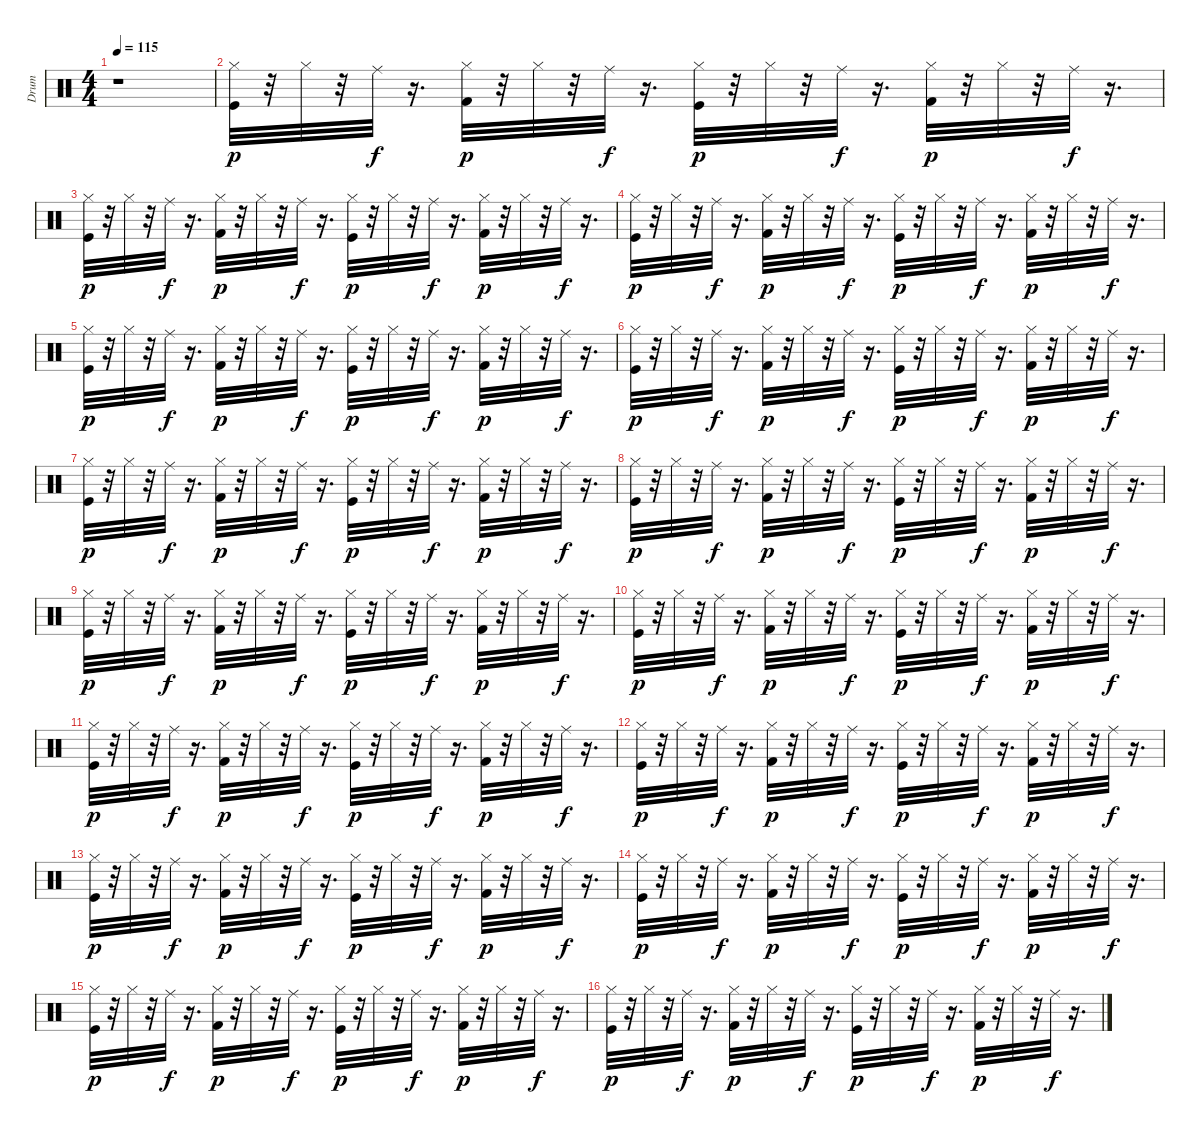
\track ("Drum" "Drum") {instrument percussion}
\staff {score}
\articulation defaults
\ts (4 4)
\tempo 115
\clef neutral
\ks c
r.1{dy p} |
("Hi-Hat (closed)" "Kick (hit)").32 r.32 "Hi-Hat (closed)".32 r.32 "Ride (middle)".32{dy f} r.16{d} ("Hi-Hat (closed)" "Kick (hit) 2").32{dy p} r.32 "Hi-Hat (closed)".32 r.32 "Ride (middle)".32{dy f} r.16{d} ("Hi-Hat (closed)" "Kick (hit)").32{dy p} r.32 "Hi-Hat (closed)".32 r.32 "Ride (middle)".32{dy f} r.16{d} ("Hi-Hat (closed)" "Kick (hit) 2").32{dy p} r.32 "Hi-Hat (closed)".32 r.32 "Ride (middle)".32{dy f} r.16{d} |
("Hi-Hat (closed)" "Kick (hit)").32{dy p} r.32 "Hi-Hat (closed)".32 r.32 "Ride (middle)".32{dy f} r.16{d} ("Hi-Hat (closed)" "Kick (hit) 2").32{dy p} r.32 "Hi-Hat (closed)".32 r.32 "Ride (middle)".32{dy f} r.16{d} ("Hi-Hat (closed)" "Kick (hit)").32{dy p} r.32 "Hi-Hat (closed)".32 r.32 "Ride (middle)".32{dy f} r.16{d} ("Hi-Hat (closed)" "Kick (hit) 2").32{dy p} r.32 "Hi-Hat (closed)".32 r.32 "Ride (middle)".32{dy f} r.16{d} |
("Hi-Hat (closed)" "Kick (hit)").32{dy p} r.32 "Hi-Hat (closed)".32 r.32 "Ride (middle)".32{dy f} r.16{d} ("Hi-Hat (closed)" "Kick (hit) 2").32{dy p} r.32 "Hi-Hat (closed)".32 r.32 "Ride (middle)".32{dy f} r.16{d} ("Hi-Hat (closed)" "Kick (hit)").32{dy p} r.32 "Hi-Hat (closed)".32 r.32 "Ride (middle)".32{dy f} r.16{d} ("Hi-Hat (closed)" "Kick (hit) 2").32{dy p} r.32 "Hi-Hat (closed)".32 r.32 "Ride (middle)".32{dy f} r.16{d} |
("Hi-Hat (closed)" "Kick (hit)").32{dy p} r.32 "Hi-Hat (closed)".32 r.32 "Ride (middle)".32{dy f} r.16{d} ("Hi-Hat (closed)" "Kick (hit) 2").32{dy p} r.32 "Hi-Hat (closed)".32 r.32 "Ride (middle)".32{dy f} r.16{d} ("Hi-Hat (closed)" "Kick (hit)").32{dy p} r.32 "Hi-Hat (closed)".32 r.32 "Ride (middle)".32{dy f} r.16{d} ("Hi-Hat (closed)" "Kick (hit) 2").32{dy p} r.32 "Hi-Hat (closed)".32 r.32 "Ride (middle)".32{dy f} r.16{d} |
("Hi-Hat (closed)" "Kick (hit)").32{dy p} r.32 "Hi-Hat (closed)".32 r.32 "Ride (middle)".32{dy f} r.16{d} ("Hi-Hat (closed)" "Kick (hit) 2").32{dy p} r.32 "Hi-Hat (closed)".32 r.32 "Ride (middle)".32{dy f} r.16{d} ("Hi-Hat (closed)" "Kick (hit)").32{dy p} r.32 "Hi-Hat (closed)".32 r.32 "Ride (middle)".32{dy f} r.16{d} ("Hi-Hat (closed)" "Kick (hit) 2").32{dy p} r.32 "Hi-Hat (closed)".32 r.32 "Ride (middle)".32{dy f} r.16{d} |
("Hi-Hat (closed)" "Kick (hit)").32{dy p} r.32 "Hi-Hat (closed)".32 r.32 "Ride (middle)".32{dy f} r.16{d} ("Hi-Hat (closed)" "Kick (hit) 2").32{dy p} r.32 "Hi-Hat (closed)".32 r.32 "Ride (middle)".32{dy f} r.16{d} ("Hi-Hat (closed)" "Kick (hit)").32{dy p} r.32 "Hi-Hat (closed)".32 r.32 "Ride (middle)".32{dy f} r.16{d} ("Hi-Hat (closed)" "Kick (hit) 2").32{dy p} r.32 "Hi-Hat (closed)".32 r.32 "Ride (middle)".32{dy f} r.16{d} |
("Hi-Hat (closed)" "Kick (hit)").32{dy p} r.32 "Hi-Hat (closed)".32 r.32 "Ride (middle)".32{dy f} r.16{d} ("Hi-Hat (closed)" "Kick (hit) 2").32{dy p} r.32 "Hi-Hat (closed)".32 r.32 "Ride (middle)".32{dy f} r.16{d} ("Hi-Hat (closed)" "Kick (hit)").32{dy p} r.32 "Hi-Hat (closed)".32 r.32 "Ride (middle)".32{dy f} r.16{d} ("Hi-Hat (closed)" "Kick (hit) 2").32{dy p} r.32 "Hi-Hat (closed)".32 r.32 "Ride (middle)".32{dy f} r.16{d} |
("Hi-Hat (closed)" "Kick (hit)").32{dy p} r.32 "Hi-Hat (closed)".32 r.32 "Ride (middle)".32{dy f} r.16{d} ("Hi-Hat (closed)" "Kick (hit) 2").32{dy p} r.32 "Hi-Hat (closed)".32 r.32 "Ride (middle)".32{dy f} r.16{d} ("Hi-Hat (closed)" "Kick (hit)").32{dy p} r.32 "Hi-Hat (closed)".32 r.32 "Ride (middle)".32{dy f} r.16{d} ("Hi-Hat (closed)" "Kick (hit) 2").32{dy p} r.32 "Hi-Hat (closed)".32 r.32 "Ride (middle)".32{dy f} r.16{d} |
("Hi-Hat (closed)" "Kick (hit)").32{dy p} r.32 "Hi-Hat (closed)".32 r.32 "Ride (middle)".32{dy f} r.16{d} ("Hi-Hat (closed)" "Kick (hit) 2").32{dy p} r.32 "Hi-Hat (closed)".32 r.32 "Ride (middle)".32{dy f} r.16{d} ("Hi-Hat (closed)" "Kick (hit)").32{dy p} r.32 "Hi-Hat (closed)".32 r.32 "Ride (middle)".32{dy f} r.16{d} ("Hi-Hat (closed)" "Kick (hit) 2").32{dy p} r.32 "Hi-Hat (closed)".32 r.32 "Ride (middle)".32{dy f} r.16{d} |
("Hi-Hat (closed)" "Kick (hit)").32{dy p} r.32 "Hi-Hat (closed)".32 r.32 "Ride (middle)".32{dy f} r.16{d} ("Hi-Hat (closed)" "Kick (hit) 2").32{dy p} r.32 "Hi-Hat (closed)".32 r.32 "Ride (middle)".32{dy f} r.16{d} ("Hi-Hat (closed)" "Kick (hit)").32{dy p} r.32 "Hi-Hat (closed)".32 r.32 "Ride (middle)".32{dy f} r.16{d} ("Hi-Hat (closed)" "Kick (hit) 2").32{dy p} r.32 "Hi-Hat (closed)".32 r.32 "Ride (middle)".32{dy f} r.16{d} |
("Hi-Hat (closed)" "Kick (hit)").32{dy p} r.32 "Hi-Hat (closed)".32 r.32 "Ride (middle)".32{dy f} r.16{d} ("Hi-Hat (closed)" "Kick (hit) 2").32{dy p} r.32 "Hi-Hat (closed)".32 r.32 "Ride (middle)".32{dy f} r.16{d} ("Hi-Hat (closed)" "Kick (hit)").32{dy p} r.32 "Hi-Hat (closed)".32 r.32 "Ride (middle)".32{dy f} r.16{d} ("Hi-Hat (closed)" "Kick (hit) 2").32{dy p} r.32 "Hi-Hat (closed)".32 r.32 "Ride (middle)".32{dy f} r.16{d} |
("Hi-Hat (closed)" "Kick (hit)").32{dy p} r.32 "Hi-Hat (closed)".32 r.32 "Ride (middle)".32{dy f} r.16{d} ("Hi-Hat (closed)" "Kick (hit) 2").32{dy p} r.32 "Hi-Hat (closed)".32 r.32 "Ride (middle)".32{dy f} r.16{d} ("Hi-Hat (closed)" "Kick (hit)").32{dy p} r.32 "Hi-Hat (closed)".32 r.32 "Ride (middle)".32{dy f} r.16{d} ("Hi-Hat (closed)" "Kick (hit) 2").32{dy p} r.32 "Hi-Hat (closed)".32 r.32 "Ride (middle)".32{dy f} r.16{d} |
("Hi-Hat (closed)" "Kick (hit)").32{dy p} r.32 "Hi-Hat (closed)".32 r.32 "Ride (middle)".32{dy f} r.16{d} ("Hi-Hat (closed)" "Kick (hit) 2").32{dy p} r.32 "Hi-Hat (closed)".32 r.32 "Ride (middle)".32{dy f} r.16{d} ("Hi-Hat (closed)" "Kick (hit)").32{dy p} r.32 "Hi-Hat (closed)".32 r.32 "Ride (middle)".32{dy f} r.16{d} ("Hi-Hat (closed)" "Kick (hit) 2").32{dy p} r.32 "Hi-Hat (closed)".32 r.32 "Ride (middle)".32{dy f} r.16{d} |
("Hi-Hat (closed)" "Kick (hit)").32{dy p} r.32 "Hi-Hat (closed)".32 r.32 "Ride (middle)".32{dy f} r.16{d} ("Hi-Hat (closed)" "Kick (hit) 2").32{dy p} r.32 "Hi-Hat (closed)".32 r.32 "Ride (middle)".32{dy f} r.16{d} ("Hi-Hat (closed)" "Kick (hit)").32{dy p} r.32 "Hi-Hat (closed)".32 r.32 "Ride (middle)".32{dy f} r.16{d} ("Hi-Hat (closed)" "Kick (hit) 2").32{dy p} r.32 "Hi-Hat (closed)".32 r.32 "Ride (middle)".32{dy f} r.16{d} |
("Hi-Hat (closed)" "Kick (hit)").32{dy p} r.32 "Hi-Hat (closed)".32 r.32 "Ride (middle)".32{dy f} r.16{d} ("Hi-Hat (closed)" "Kick (hit) 2").32{dy p} r.32 "Hi-Hat (closed)".32 r.32 "Ride (middle)".32{dy f} r.16{d} ("Hi-Hat (closed)" "Kick (hit)").32{dy p} r.32 "Hi-Hat (closed)".32 r.32 "Ride (middle)".32{dy f} r.16{d} ("Hi-Hat (closed)" "Kick (hit) 2").32{dy p} r.32 "Hi-Hat (closed)".32 r.32 "Ride (middle)".32{dy f} r.16{d}
